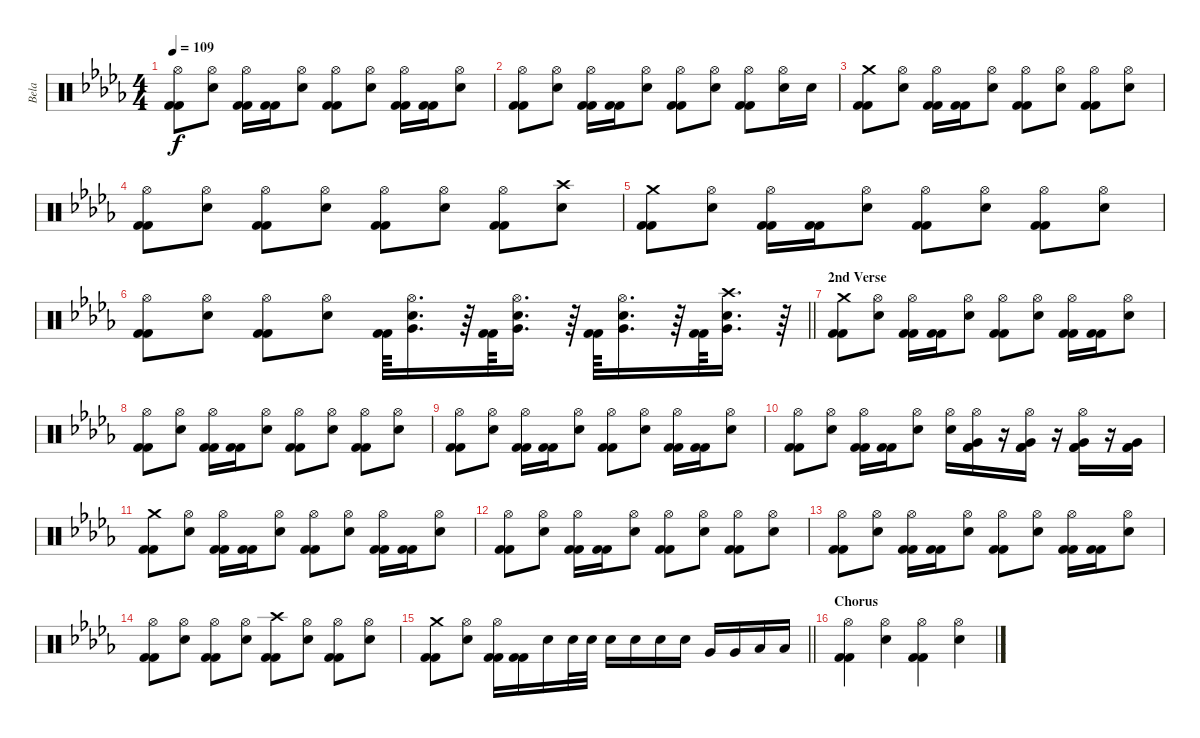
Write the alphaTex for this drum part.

\track ("Bela" "Bela") {instrument percussion}
\staff {score}
\articulation defaults
\ts (4 4)
\tempo 109
\clef neutral
\ks bbminor
("Hi-Hat (open)" "Kick (hit) 2" "Kick (hit) 2").8{dy f} ("Hi-Hat (open)" "Snare (hit) 2").8 ("Hi-Hat (open)" "Kick (hit) 2" "Kick (hit) 2").16 ("Kick (hit) 2" "Kick (hit) 2").16 ("Hi-Hat (open)" "Snare (hit) 2").8 ("Hi-Hat (open)" "Kick (hit) 2" "Kick (hit) 2").8 ("Hi-Hat (open)" "Snare (hit) 2").8 ("Hi-Hat (open)" "Kick (hit) 2" "Kick (hit) 2").16 ("Kick (hit) 2" "Kick (hit) 2").16 ("Hi-Hat (open)" "Snare (hit) 2").8 |
("Hi-Hat (open)" "Kick (hit) 2" "Kick (hit) 2").8 ("Hi-Hat (open)" "Snare (hit) 2").8 ("Hi-Hat (open)" "Kick (hit) 2" "Kick (hit) 2").16 ("Kick (hit) 2" "Kick (hit) 2").16 ("Hi-Hat (open)" "Snare (hit) 2").8 ("Hi-Hat (open)" "Kick (hit) 2" "Kick (hit) 2").8 ("Hi-Hat (open)" "Snare (hit) 2").8 ("Hi-Hat (open)" "Kick (hit) 2" "Kick (hit) 2").8 ("Hi-Hat (open)" "Snare (hit) 2").16 "Snare (hit) 2".16 |
("Crash medium (hit)" "Kick (hit) 2" "Kick (hit) 2").8 ("Hi-Hat (open)" "Snare (hit) 2").8 ("Hi-Hat (open)" "Kick (hit) 2" "Kick (hit) 2").16 ("Kick (hit) 2" "Kick (hit) 2").16 ("Hi-Hat (open)" "Snare (hit) 2").8 ("Hi-Hat (open)" "Kick (hit) 2" "Kick (hit) 2").8 ("Hi-Hat (open)" "Snare (hit) 2").8 ("Hi-Hat (open)" "Kick (hit) 2" "Kick (hit) 2").8 ("Hi-Hat (open)" "Snare (hit) 2").8 |
("Hi-Hat (open)" "Kick (hit) 2" "Kick (hit) 2").8 ("Hi-Hat (open)" "Snare (hit) 2").8 ("Hi-Hat (open)" "Kick (hit) 2" "Kick (hit) 2").8 ("Hi-Hat (open)" "Snare (hit) 2").8 ("Hi-Hat (open)" "Kick (hit) 2" "Kick (hit) 2").8 ("Hi-Hat (open)" "Snare (hit) 2").8 ("Hi-Hat (open)" "Kick (hit) 2" "Kick (hit) 2").8 ("Crash high (hit)" "Snare (hit) 2").8 |
("Crash medium (hit)" "Kick (hit) 2" "Kick (hit) 2").8 ("Hi-Hat (open)" "Snare (hit) 2").8 ("Hi-Hat (open)" "Kick (hit) 2" "Kick (hit) 2").16 ("Kick (hit) 2" "Kick (hit) 2").16 ("Hi-Hat (open)" "Snare (hit) 2").8 ("Hi-Hat (open)" "Kick (hit) 2" "Kick (hit) 2").8 ("Hi-Hat (open)" "Snare (hit) 2").8 ("Hi-Hat (open)" "Kick (hit) 2" "Kick (hit) 2").8 ("Hi-Hat (open)" "Snare (hit) 2").8 |
\barLineRight lightlight
("Hi-Hat (open)" "Kick (hit) 2" "Kick (hit) 2").8 ("Hi-Hat (open)" "Snare (hit) 2").8 ("Hi-Hat (open)" "Kick (hit) 2" "Kick (hit) 2").8 ("Hi-Hat (open)" "Snare (hit) 2").8 ("Kick (hit) 2" "Kick (hit) 2").64 ("Hi-Hat (open)" "Very Low Tom (hit)" "Snare (hit) 2").16{d} r.64 ("Kick (hit) 2" "Kick (hit) 2").64 ("Hi-Hat (open)" "Very Low Tom (hit)" "Snare (hit) 2").16{d} r.64 ("Kick (hit) 2" "Kick (hit) 2").64 ("Hi-Hat (open)" "Very Low Tom (hit)" "Snare (hit) 2").16{d} r.64 ("Kick (hit) 2" "Kick (hit) 2").64 ("Crash high (hit)" "Very Low Tom (hit)" "Snare (hit) 2").16{d} r.64 |
\section ("" "2nd Verse")
("Crash medium (hit)" "Kick (hit) 2" "Kick (hit) 2").8 ("Hi-Hat (open)" "Snare (hit) 2").8 ("Hi-Hat (open)" "Kick (hit) 2" "Kick (hit) 2").16 ("Kick (hit) 2" "Kick (hit) 2").16 ("Hi-Hat (open)" "Snare (hit) 2").8 ("Hi-Hat (open)" "Kick (hit) 2" "Kick (hit) 2").8 ("Hi-Hat (open)" "Snare (hit) 2").8 ("Hi-Hat (open)" "Kick (hit) 2" "Kick (hit) 2").16 ("Kick (hit) 2" "Kick (hit) 2").16 ("Hi-Hat (open)" "Snare (hit) 2").8 |
("Hi-Hat (open)" "Kick (hit) 2" "Kick (hit) 2").8 ("Hi-Hat (open)" "Snare (hit) 2").8 ("Hi-Hat (open)" "Kick (hit) 2" "Kick (hit) 2").16 ("Kick (hit) 2" "Kick (hit) 2").16 ("Hi-Hat (open)" "Snare (hit) 2").8 ("Hi-Hat (open)" "Kick (hit) 2" "Kick (hit) 2").8 ("Hi-Hat (open)" "Snare (hit) 2").8 ("Hi-Hat (open)" "Kick (hit) 2" "Kick (hit) 2").8 ("Hi-Hat (open)" "Snare (hit) 2").8 |
("Hi-Hat (open)" "Kick (hit) 2" "Kick (hit) 2").8 ("Hi-Hat (open)" "Snare (hit) 2").8 ("Hi-Hat (open)" "Kick (hit) 2" "Kick (hit) 2").16 ("Kick (hit) 2" "Kick (hit) 2").16 ("Hi-Hat (open)" "Snare (hit) 2").8 ("Hi-Hat (open)" "Kick (hit) 2" "Kick (hit) 2").8 ("Hi-Hat (open)" "Snare (hit) 2").8 ("Hi-Hat (open)" "Kick (hit) 2" "Kick (hit) 2").16 ("Kick (hit) 2" "Kick (hit) 2").16 ("Hi-Hat (open)" "Snare (hit) 2").8 |
("Hi-Hat (open)" "Kick (hit) 2" "Kick (hit) 2").8 ("Hi-Hat (open)" "Snare (hit) 2").8 ("Hi-Hat (open)" "Kick (hit) 2" "Kick (hit) 2").16 ("Kick (hit) 2" "Kick (hit) 2").16 ("Hi-Hat (open)" "Snare (hit) 2").8 ("Hi-Hat (open)" "Snare (hit) 2").16 ("Hi-Hat (open)" "Very Low Tom (hit)" "Kick (hit) 2" "Kick (hit) 2").16 r.16 ("Hi-Hat (open)" "Very Low Tom (hit)" "Kick (hit) 2" "Kick (hit) 2").16 r.16 ("Hi-Hat (open)" "Very Low Tom (hit)" "Kick (hit) 2" "Kick (hit) 2").16 r.16 ("Very Low Tom (hit)" "Kick (hit) 2" "Kick (hit) 2").16 |
("Crash medium (hit)" "Kick (hit) 2" "Kick (hit) 2").8 ("Hi-Hat (open)" "Snare (hit) 2").8 ("Hi-Hat (open)" "Kick (hit) 2" "Kick (hit) 2").16 ("Kick (hit) 2" "Kick (hit) 2").16 ("Hi-Hat (open)" "Snare (hit) 2").8 ("Hi-Hat (open)" "Kick (hit) 2" "Kick (hit) 2").8 ("Hi-Hat (open)" "Snare (hit) 2").8 ("Hi-Hat (open)" "Kick (hit) 2" "Kick (hit) 2").16 ("Kick (hit) 2" "Kick (hit) 2").16 ("Hi-Hat (open)" "Snare (hit) 2").8 |
("Hi-Hat (open)" "Kick (hit) 2" "Kick (hit) 2").8 ("Hi-Hat (open)" "Snare (hit) 2").8 ("Hi-Hat (open)" "Kick (hit) 2" "Kick (hit) 2").16 ("Kick (hit) 2" "Kick (hit) 2").16 ("Hi-Hat (open)" "Snare (hit) 2").8 ("Hi-Hat (open)" "Kick (hit) 2" "Kick (hit) 2").8 ("Hi-Hat (open)" "Snare (hit) 2").8 ("Hi-Hat (open)" "Kick (hit) 2" "Kick (hit) 2").8 ("Hi-Hat (open)" "Snare (hit) 2").8 |
("Hi-Hat (open)" "Kick (hit) 2" "Kick (hit) 2").8 ("Hi-Hat (open)" "Snare (hit) 2").8 ("Hi-Hat (open)" "Kick (hit) 2" "Kick (hit) 2").16 ("Kick (hit) 2" "Kick (hit) 2").16 ("Hi-Hat (open)" "Snare (hit) 2").8 ("Hi-Hat (open)" "Kick (hit) 2" "Kick (hit) 2").8 ("Hi-Hat (open)" "Snare (hit) 2").8 ("Hi-Hat (open)" "Kick (hit) 2" "Kick (hit) 2").16 ("Kick (hit) 2" "Kick (hit) 2").16 ("Hi-Hat (open)" "Snare (hit) 2").8 |
("Hi-Hat (open)" "Kick (hit) 2" "Kick (hit) 2").8 ("Hi-Hat (open)" "Snare (hit) 2").8 ("Hi-Hat (open)" "Kick (hit) 2" "Kick (hit) 2").8 ("Hi-Hat (open)" "Snare (hit) 2").8 ("Crash high (hit)" "Kick (hit) 2" "Kick (hit) 2").8 ("Hi-Hat (open)" "Snare (hit) 2").8 ("Hi-Hat (open)" "Kick (hit) 2" "Kick (hit) 2").8 ("Hi-Hat (open)" "Snare (hit) 2").8 |
\barLineRight lightlight
("Crash medium (hit)" "Kick (hit) 2" "Kick (hit) 2").8 ("Hi-Hat (open)" "Snare (hit) 2").8 ("Hi-Hat (open)" "Kick (hit) 2" "Kick (hit) 2").16 ("Kick (hit) 2" "Kick (hit) 2").16 "Snare (hit) 2".16 "Snare (hit) 2".32 "Snare (hit) 2".32 "Snare (hit) 2".16 "Snare (hit) 2".16 "Electric Snare (hit)".16 "Electric Snare (hit)".16 "Very Low Tom (hit)".16 "Very Low Tom (hit)".16 "Low Floor Tom (hit)".16 "Low Floor Tom (hit)".16 |
\section ("" "Chorus")
("Hi-Hat (open)" "Kick (hit) 2" "Kick (hit) 2").4 ("Hi-Hat (open)" "Snare (hit) 2").4 ("Hi-Hat (open)" "Kick (hit) 2" "Kick (hit) 2").4 ("Hi-Hat (open)" "Snare (hit) 2").4
